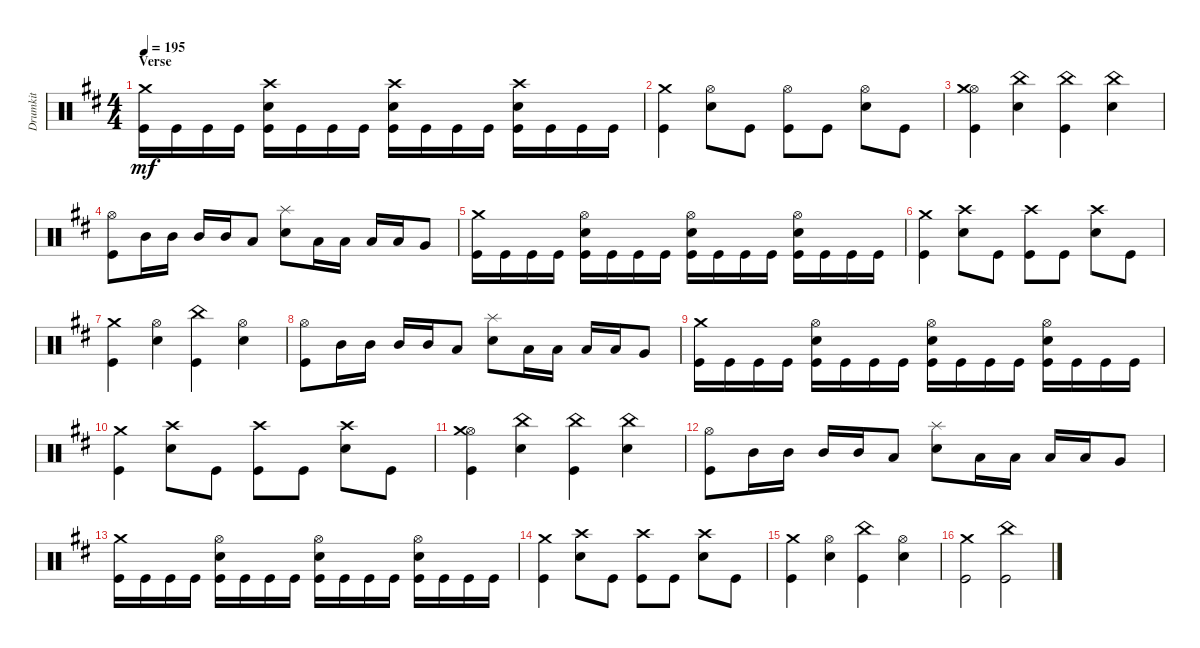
\track ("Drumkit" "Drumkit") {instrument percussion}
\staff {score}
\articulation defaults
\ts (4 4)
\section ("" "Verse")
\tempo 195
\clef neutral
\ks bminor
("Kick (hit)" "Crash medium (hit)").16{dy mf} "Kick (hit)".16 "Kick (hit)".16 "Kick (hit)".16 ("Kick (hit)" "Snare (hit) 2" "Crash high (hit)").16 "Kick (hit)".16 "Kick (hit)".16 "Kick (hit)".16 ("Kick (hit)" "Snare (hit) 2" "Crash high (hit)").16 "Kick (hit)".16 "Kick (hit)".16 "Kick (hit)".16 ("Kick (hit)" "Snare (hit) 2" "Crash high (hit)").16 "Kick (hit)".16 "Kick (hit)".16 "Kick (hit)".16 |
("Kick (hit)" "Crash medium (hit)").4 ("Snare (hit) 2" "Hi-Hat (open)").8 "Kick (hit)".8 ("Kick (hit)" "Hi-Hat (open)").8 "Kick (hit)".8 ("Snare (hit) 2" "Hi-Hat (open)").8 "Kick (hit)".8 |
("Kick (hit)" "Hi-Hat (open)" "Crash medium (hit)").4 ("Snare (hit) 2" "China (hit)").4 ("Kick (hit)" "China (hit)").4 ("Snare (hit) 2" "China (hit)").4 |
("Kick (hit)" "Hi-Hat (open)").8 "Mid Tom (hit)".16 "Mid Tom (hit)".16 "Mid Tom (hit)".16 "Mid Tom (hit)".16 "Low Tom (hit)".8 ("Snare (hit) 2" "Splash (hit)").8 "Low Tom (hit)".16 "Low Tom (hit)".16 "Low Tom (hit)".16 "Low Tom (hit)".16 "Very Low Tom (hit)".8 |
("Kick (hit)" "Crash medium (hit)").16 "Kick (hit)".16 "Kick (hit)".16 "Kick (hit)".16 ("Kick (hit)" "Snare (hit) 2" "Hi-Hat (open)").16 "Kick (hit)".16 "Kick (hit)".16 "Kick (hit)".16 ("Kick (hit)" "Snare (hit) 2" "Hi-Hat (open)").16 "Kick (hit)".16 "Kick (hit)".16 "Kick (hit)".16 ("Kick (hit)" "Snare (hit) 2" "Hi-Hat (open)").16 "Kick (hit)".16 "Kick (hit)".16 "Kick (hit)".16 |
("Kick (hit)" "Crash medium (hit)").4 ("Snare (hit) 2" "Crash high (hit)").8 "Kick (hit)".8 ("Kick (hit)" "Crash high (hit)").8 "Kick (hit)".8 ("Snare (hit) 2" "Crash high (hit)").8 "Kick (hit)".8 |
("Kick (hit)" "Crash medium (hit)").4 ("Snare (hit) 2" "Hi-Hat (open)").4 ("Kick (hit)" "China (hit)").4 ("Snare (hit) 2" "Hi-Hat (open)").4 |
("Kick (hit)" "Hi-Hat (open)").8 "Mid Tom (hit)".16 "Mid Tom (hit)".16 "Mid Tom (hit)".16 "Mid Tom (hit)".16 "Low Tom (hit)".8 ("Snare (hit) 2" "Splash (hit)").8 "Low Tom (hit)".16 "Low Tom (hit)".16 "Low Tom (hit)".16 "Low Tom (hit)".16 "Very Low Tom (hit)".8 |
("Kick (hit)" "Crash medium (hit)").16 "Kick (hit)".16 "Kick (hit)".16 "Kick (hit)".16 ("Kick (hit)" "Snare (hit) 2" "Hi-Hat (open)").16 "Kick (hit)".16 "Kick (hit)".16 "Kick (hit)".16 ("Kick (hit)" "Snare (hit) 2" "Hi-Hat (open)").16 "Kick (hit)".16 "Kick (hit)".16 "Kick (hit)".16 ("Kick (hit)" "Snare (hit) 2" "Hi-Hat (open)").16 "Kick (hit)".16 "Kick (hit)".16 "Kick (hit)".16 |
("Kick (hit)" "Crash medium (hit)").4 ("Snare (hit) 2" "Crash high (hit)").8 "Kick (hit)".8 ("Kick (hit)" "Crash high (hit)").8 "Kick (hit)".8 ("Snare (hit) 2" "Crash high (hit)").8 "Kick (hit)".8 |
("Kick (hit)" "Hi-Hat (open)" "Crash medium (hit)").4 ("Snare (hit) 2" "China (hit)").4 ("Kick (hit)" "China (hit)").4 ("Snare (hit) 2" "China (hit)").4 |
("Kick (hit)" "Hi-Hat (open)").8 "Mid Tom (hit)".16 "Mid Tom (hit)".16 "Mid Tom (hit)".16 "Mid Tom (hit)".16 "Low Tom (hit)".8 ("Snare (hit) 2" "Splash (hit)").8 "Low Tom (hit)".16 "Low Tom (hit)".16 "Low Tom (hit)".16 "Low Tom (hit)".16 "Very Low Tom (hit)".8 |
("Kick (hit)" "Crash medium (hit)").16 "Kick (hit)".16 "Kick (hit)".16 "Kick (hit)".16 ("Kick (hit)" "Snare (hit) 2" "Hi-Hat (open)").16 "Kick (hit)".16 "Kick (hit)".16 "Kick (hit)".16 ("Kick (hit)" "Snare (hit) 2" "Hi-Hat (open)").16 "Kick (hit)".16 "Kick (hit)".16 "Kick (hit)".16 ("Kick (hit)" "Snare (hit) 2" "Hi-Hat (open)").16 "Kick (hit)".16 "Kick (hit)".16 "Kick (hit)".16 |
("Kick (hit)" "Crash medium (hit)").4 ("Snare (hit) 2" "Crash high (hit)").8 "Kick (hit)".8 ("Kick (hit)" "Crash high (hit)").8 "Kick (hit)".8 ("Snare (hit) 2" "Crash high (hit)").8 "Kick (hit)".8 |
("Kick (hit)" "Crash medium (hit)").4 ("Snare (hit) 2" "Hi-Hat (open)").4 ("Kick (hit)" "China (hit)").4 ("Snare (hit) 2" "Hi-Hat (open)").4 |
("Kick (hit)" "Crash medium (hit)").2 ("Kick (hit)" "China (hit)").2
